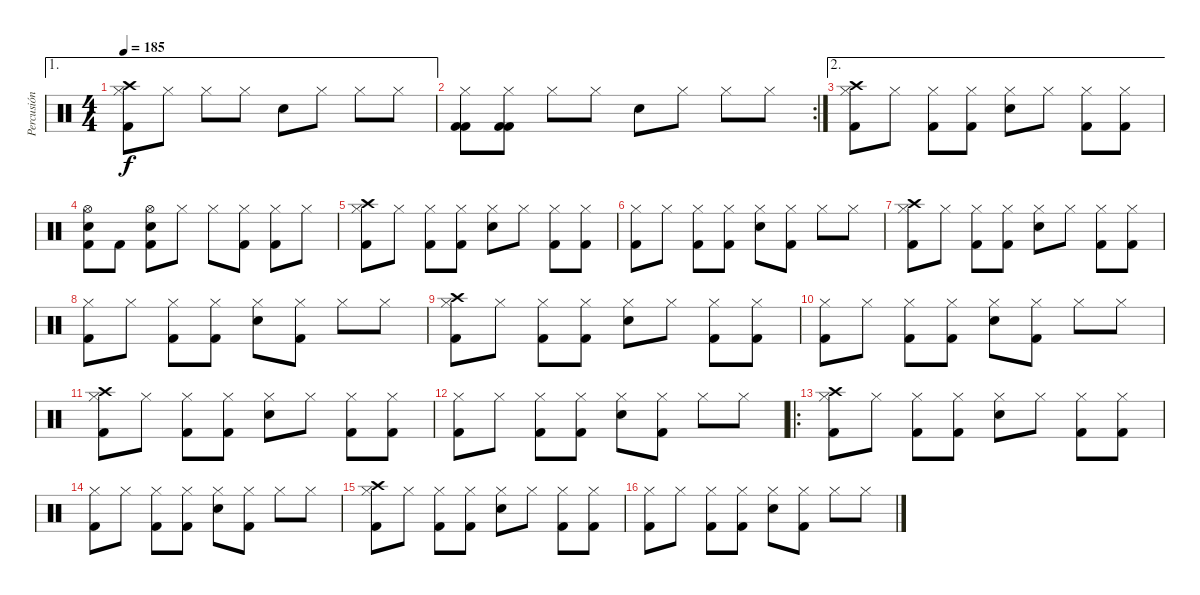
\track ("Percusión" "Percusión") {instrument percussion}
\staff {score}
\articulation defaults
\ae 1
\ts (4 4)
\tempo 185
\clef neutral
\ks c
("Crash high (hit)" "Hi-Hat (closed)" "Kick (hit) 2").8{dy f} "Hi-Hat (closed)".8 "Hi-Hat (closed)".8 "Hi-Hat (closed)".8 "Electric Snare (hit)".8 "Hi-Hat (closed)".8 "Hi-Hat (closed)".8 "Hi-Hat (closed)".8 |
\rc 2
("Kick (hit) 2" "Hi-Hat (closed)" "Kick (hit) 2").8 ("Kick (hit) 2" "Hi-Hat (closed)" "Kick (hit) 2").8 "Hi-Hat (closed)".8 "Hi-Hat (closed)".8 "Electric Snare (hit)".8 "Hi-Hat (closed)".8 "Hi-Hat (closed)".8 "Hi-Hat (closed)".8 |
\ae 2
("Crash high (hit)" "Hi-Hat (closed)" "Kick (hit) 2").8 "Hi-Hat (closed)".8 ("Hi-Hat (closed)" "Kick (hit) 2").8 ("Hi-Hat (closed)" "Kick (hit) 2").8 ("Electric Snare (hit)" "Hi-Hat (closed)").8 "Hi-Hat (closed)".8 ("Hi-Hat (closed)" "Kick (hit) 2").8 ("Hi-Hat (closed)" "Kick (hit) 2").8 |
("Hi-Hat (open)" "Electric Snare (hit)" "Kick (hit) 2").8 "Kick (hit) 2".8 ("Hi-Hat (open)" "Electric Snare (hit)" "Kick (hit) 2").8 "Hi-Hat (closed)".8 "Hi-Hat (closed)".8 ("Hi-Hat (closed)" "Kick (hit) 2").8 ("Hi-Hat (closed)" "Kick (hit) 2").8 "Hi-Hat (closed)".8 |
("Crash high (hit)" "Hi-Hat (closed)" "Kick (hit) 2").8 "Hi-Hat (closed)".8 ("Hi-Hat (closed)" "Kick (hit) 2").8 ("Hi-Hat (closed)" "Kick (hit) 2").8 ("Electric Snare (hit)" "Hi-Hat (closed)").8 "Hi-Hat (closed)".8 ("Hi-Hat (closed)" "Kick (hit) 2").8 ("Hi-Hat (closed)" "Kick (hit) 2").8 |
("Hi-Hat (closed)" "Kick (hit) 2").8 "Hi-Hat (closed)".8 ("Hi-Hat (closed)" "Kick (hit) 2").8 ("Hi-Hat (closed)" "Kick (hit) 2").8 ("Electric Snare (hit)" "Hi-Hat (closed)").8 ("Hi-Hat (closed)" "Kick (hit) 2").8 "Hi-Hat (closed)".8 "Hi-Hat (closed)".8 |
("Crash high (hit)" "Hi-Hat (closed)" "Kick (hit) 2").8 "Hi-Hat (closed)".8 ("Hi-Hat (closed)" "Kick (hit) 2").8 ("Hi-Hat (closed)" "Kick (hit) 2").8 ("Electric Snare (hit)" "Hi-Hat (closed)").8 "Hi-Hat (closed)".8 ("Hi-Hat (closed)" "Kick (hit) 2").8 ("Hi-Hat (closed)" "Kick (hit) 2").8 |
("Hi-Hat (closed)" "Kick (hit) 2").8 "Hi-Hat (closed)".8 ("Hi-Hat (closed)" "Kick (hit) 2").8 ("Hi-Hat (closed)" "Kick (hit) 2").8 ("Electric Snare (hit)" "Hi-Hat (closed)").8 ("Hi-Hat (closed)" "Kick (hit) 2").8 "Hi-Hat (closed)".8 "Hi-Hat (closed)".8 |
("Crash high (hit)" "Hi-Hat (closed)" "Kick (hit) 2").8 "Hi-Hat (closed)".8 ("Hi-Hat (closed)" "Kick (hit) 2").8 ("Hi-Hat (closed)" "Kick (hit) 2").8 ("Electric Snare (hit)" "Hi-Hat (closed)").8 "Hi-Hat (closed)".8 ("Hi-Hat (closed)" "Kick (hit) 2").8 ("Hi-Hat (closed)" "Kick (hit) 2").8 |
("Hi-Hat (closed)" "Kick (hit) 2").8 "Hi-Hat (closed)".8 ("Hi-Hat (closed)" "Kick (hit) 2").8 ("Hi-Hat (closed)" "Kick (hit) 2").8 ("Electric Snare (hit)" "Hi-Hat (closed)").8 ("Hi-Hat (closed)" "Kick (hit) 2").8 "Hi-Hat (closed)".8 "Hi-Hat (closed)".8 |
("Crash high (hit)" "Hi-Hat (closed)" "Kick (hit) 2").8 "Hi-Hat (closed)".8 ("Hi-Hat (closed)" "Kick (hit) 2").8 ("Hi-Hat (closed)" "Kick (hit) 2").8 ("Electric Snare (hit)" "Hi-Hat (closed)").8 "Hi-Hat (closed)".8 ("Hi-Hat (closed)" "Kick (hit) 2").8 ("Hi-Hat (closed)" "Kick (hit) 2").8 |
("Hi-Hat (closed)" "Kick (hit) 2").8 "Hi-Hat (closed)".8 ("Hi-Hat (closed)" "Kick (hit) 2").8 ("Hi-Hat (closed)" "Kick (hit) 2").8 ("Electric Snare (hit)" "Hi-Hat (closed)").8 ("Hi-Hat (closed)" "Kick (hit) 2").8 "Hi-Hat (closed)".8 "Hi-Hat (closed)".8 |
\ro
("Crash high (hit)" "Hi-Hat (closed)" "Kick (hit) 2").8 "Hi-Hat (closed)".8 ("Hi-Hat (closed)" "Kick (hit) 2").8 ("Hi-Hat (closed)" "Kick (hit) 2").8 ("Electric Snare (hit)" "Hi-Hat (closed)").8 "Hi-Hat (closed)".8 ("Hi-Hat (closed)" "Kick (hit) 2").8 ("Hi-Hat (closed)" "Kick (hit) 2").8 |
("Hi-Hat (closed)" "Kick (hit) 2").8 "Hi-Hat (closed)".8 ("Hi-Hat (closed)" "Kick (hit) 2").8 ("Hi-Hat (closed)" "Kick (hit) 2").8 ("Electric Snare (hit)" "Hi-Hat (closed)").8 ("Hi-Hat (closed)" "Kick (hit) 2").8 "Hi-Hat (closed)".8 "Hi-Hat (closed)".8 |
("Crash high (hit)" "Hi-Hat (closed)" "Kick (hit) 2").8 "Hi-Hat (closed)".8 ("Hi-Hat (closed)" "Kick (hit) 2").8 ("Hi-Hat (closed)" "Kick (hit) 2").8 ("Electric Snare (hit)" "Hi-Hat (closed)").8 "Hi-Hat (closed)".8 ("Hi-Hat (closed)" "Kick (hit) 2").8 ("Hi-Hat (closed)" "Kick (hit) 2").8 |
("Hi-Hat (closed)" "Kick (hit) 2").8 "Hi-Hat (closed)".8 ("Hi-Hat (closed)" "Kick (hit) 2").8 ("Hi-Hat (closed)" "Kick (hit) 2").8 ("Electric Snare (hit)" "Hi-Hat (closed)").8 ("Hi-Hat (closed)" "Kick (hit) 2").8 "Hi-Hat (closed)".8 "Hi-Hat (closed)".8
